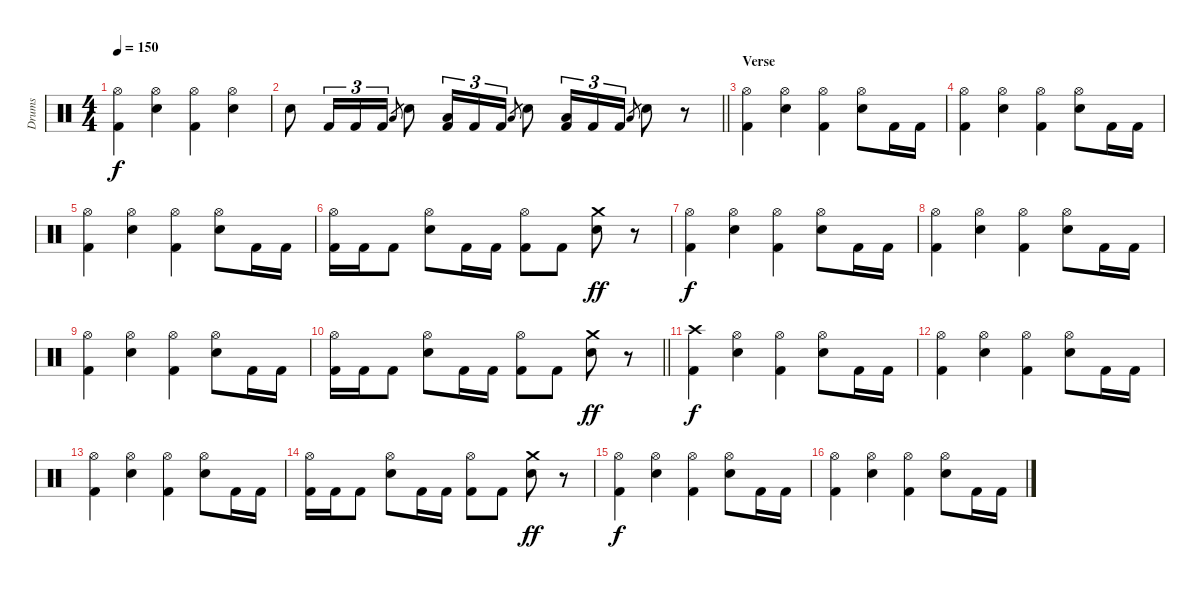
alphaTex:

\track ("Drums" "Drums") {instrument percussion}
\staff {score}
\articulation defaults
\ts (4 4)
\tempo 150
\clef neutral
\ks c
("Hi-Hat (open)" "Kick (hit) 2").4{dy f} ("Hi-Hat (open)" "Electric Snare (hit)").4 ("Hi-Hat (open)" "Kick (hit) 2").4 ("Hi-Hat (open)" "Electric Snare (hit)").4 |
\barLineRight lightlight "Electric Snare (hit)".8 "Kick (hit) 2".16{tu (3 2)} "Kick (hit) 2".16{tu (3 2)} "Kick (hit) 2".16{tu (3 2)} "Low Tom (hit)".8{gr} "Electric Snare (hit)".8
("Low Tom (hit)" "Kick (hit) 2").16{tu (3 2)} "Kick (hit) 2".16{tu (3 2)} "Kick (hit) 2".16{tu (3 2)} "Low Tom (hit)".8{gr} "Electric Snare (hit)".8 ("Low Tom (hit)" "Kick (hit) 2").16{tu (3 2)} "Kick (hit) 2".16{tu (3 2)} "Kick (hit) 2".16{tu (3 2)} "Low Tom (hit)".8{gr} "Electric Snare (hit)".8 r.8 |
\section ("" "Verse")
("Hi-Hat (open)" "Kick (hit) 2").4 ("Hi-Hat (open)" "Electric Snare (hit)").4 ("Hi-Hat (open)" "Kick (hit) 2").4 ("Hi-Hat (open)" "Electric Snare (hit)").8 "Kick (hit) 2".16 "Kick (hit) 2".16 |
("Hi-Hat (open)" "Kick (hit) 2").4 ("Hi-Hat (open)" "Electric Snare (hit)").4 ("Hi-Hat (open)" "Kick (hit) 2").4 ("Hi-Hat (open)" "Electric Snare (hit)").8 "Kick (hit) 2".16 "Kick (hit) 2".16 |
("Hi-Hat (open)" "Kick (hit) 2").4 ("Hi-Hat (open)" "Electric Snare (hit)").4 ("Hi-Hat (open)" "Kick (hit) 2").4 ("Hi-Hat (open)" "Electric Snare (hit)").8 "Kick (hit) 2".16 "Kick (hit) 2".16 |
("Hi-Hat (open)" "Kick (hit) 2").16 "Kick (hit) 2".16 "Kick (hit) 2".8 ("Hi-Hat (open)" "Electric Snare (hit)").8 "Kick (hit) 2".16 "Kick (hit) 2".16 ("Hi-Hat (open)" "Kick (hit) 2").8 "Kick (hit) 2".8 ("Crash medium (hit)" "Electric Snare (hit)").8{dy ff} r.8 |
("Hi-Hat (open)" "Kick (hit) 2").4{dy f} ("Hi-Hat (open)" "Electric Snare (hit)").4 ("Hi-Hat (open)" "Kick (hit) 2").4 ("Hi-Hat (open)" "Electric Snare (hit)").8 "Kick (hit) 2".16 "Kick (hit) 2".16 |
("Hi-Hat (open)" "Kick (hit) 2").4 ("Hi-Hat (open)" "Electric Snare (hit)").4 ("Hi-Hat (open)" "Kick (hit) 2").4 ("Hi-Hat (open)" "Electric Snare (hit)").8 "Kick (hit) 2".16 "Kick (hit) 2".16 |
("Hi-Hat (open)" "Kick (hit) 2").4 ("Hi-Hat (open)" "Electric Snare (hit)").4 ("Hi-Hat (open)" "Kick (hit) 2").4 ("Hi-Hat (open)" "Electric Snare (hit)").8 "Kick (hit) 2".16 "Kick (hit) 2".16 |
\barLineRight lightlight
("Hi-Hat (open)" "Kick (hit) 2").16 "Kick (hit) 2".16 "Kick (hit) 2".8 ("Hi-Hat (open)" "Electric Snare (hit)").8 "Kick (hit) 2".16 "Kick (hit) 2".16 ("Hi-Hat (open)" "Kick (hit) 2").8 "Kick (hit) 2".8 ("Crash medium (hit)" "Electric Snare (hit)").8{dy ff} r.8 |
("Crash high (hit)" "Kick (hit) 2").4{dy f} ("Hi-Hat (open)" "Electric Snare (hit)").4 ("Hi-Hat (open)" "Kick (hit) 2").4 ("Hi-Hat (open)" "Electric Snare (hit)").8 "Kick (hit) 2".16 "Kick (hit) 2".16 |
("Hi-Hat (open)" "Kick (hit) 2").4 ("Hi-Hat (open)" "Electric Snare (hit)").4 ("Hi-Hat (open)" "Kick (hit) 2").4 ("Hi-Hat (open)" "Electric Snare (hit)").8 "Kick (hit) 2".16 "Kick (hit) 2".16 |
("Hi-Hat (open)" "Kick (hit) 2").4 ("Hi-Hat (open)" "Electric Snare (hit)").4 ("Hi-Hat (open)" "Kick (hit) 2").4 ("Hi-Hat (open)" "Electric Snare (hit)").8 "Kick (hit) 2".16 "Kick (hit) 2".16 |
("Hi-Hat (open)" "Kick (hit) 2").16 "Kick (hit) 2".16 "Kick (hit) 2".8 ("Hi-Hat (open)" "Electric Snare (hit)").8 "Kick (hit) 2".16 "Kick (hit) 2".16 ("Hi-Hat (open)" "Kick (hit) 2").8 "Kick (hit) 2".8 ("Crash medium (hit)" "Electric Snare (hit)").8{dy ff} r.8 |
("Hi-Hat (open)" "Kick (hit) 2").4{dy f} ("Hi-Hat (open)" "Electric Snare (hit)").4 ("Hi-Hat (open)" "Kick (hit) 2").4 ("Hi-Hat (open)" "Electric Snare (hit)").8 "Kick (hit) 2".16 "Kick (hit) 2".16 |
("Hi-Hat (open)" "Kick (hit) 2").4 ("Hi-Hat (open)" "Electric Snare (hit)").4 ("Hi-Hat (open)" "Kick (hit) 2").4 ("Hi-Hat (open)" "Electric Snare (hit)").8 "Kick (hit) 2".16 "Kick (hit) 2".16
